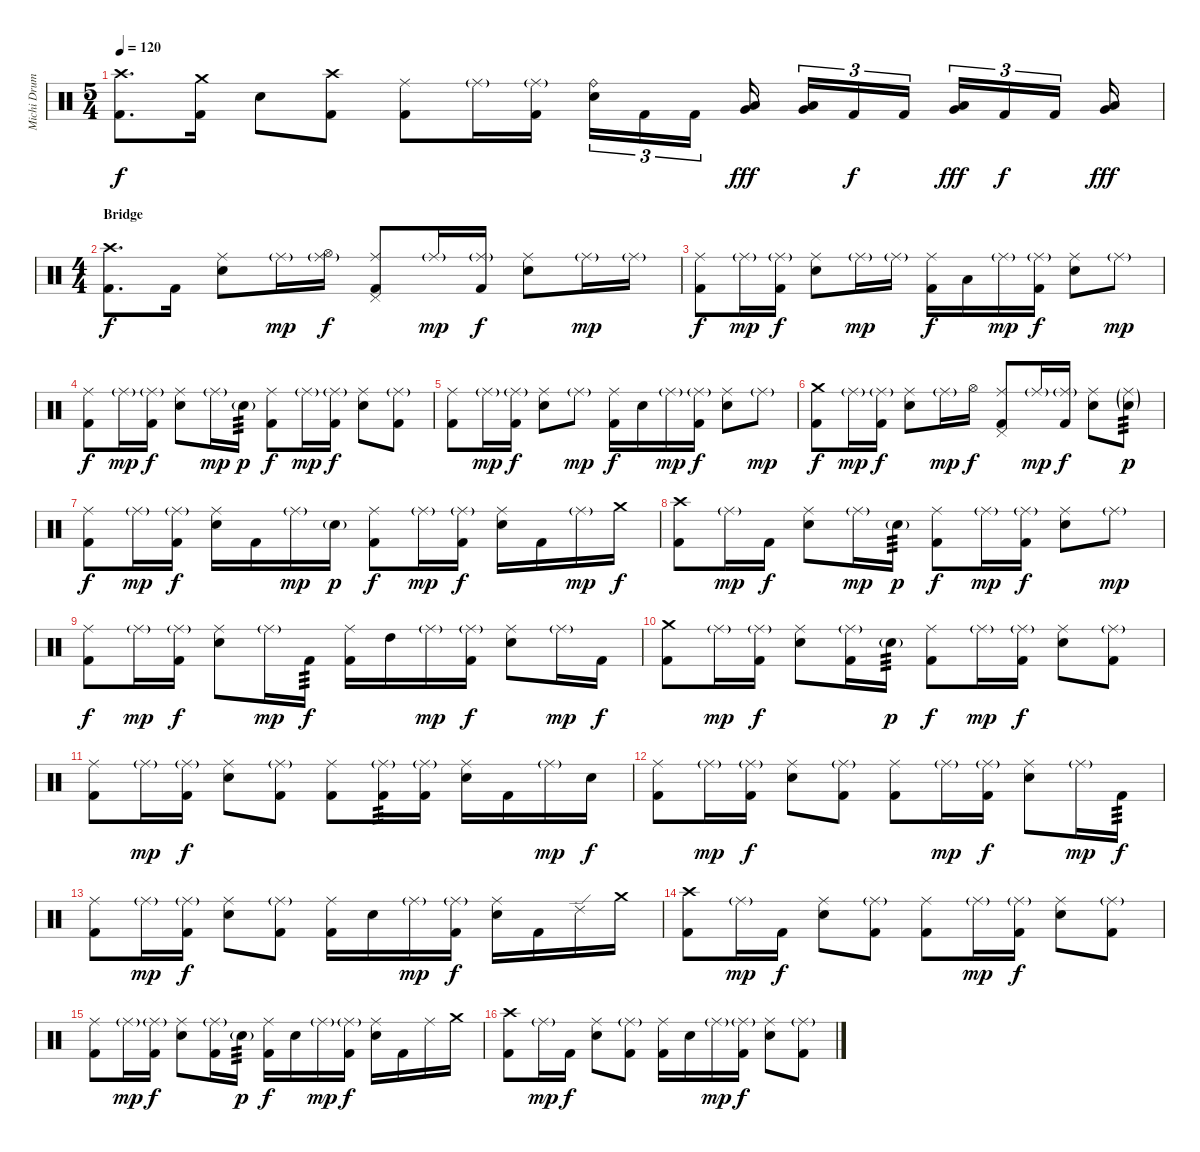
\track ("Michi Drums" "Michi Drum") {instrument percussion}
\staff {score}
\articulation defaults
\ts (5 4)
\tempo 120
\clef neutral
\ks c
("Crash high (hit)" "Kick (hit) 2").8{d dy f} ("Crash medium (hit)" "Kick (hit) 2").16 "Electric Snare (hit)".8 ("Crash high (hit)" "Kick (hit) 2").8 ("Ride (middle)" "Kick (hit) 2").8 "Ride (middle)"{g}.16 ("Ride (middle)"{g} "Kick (hit) 2").16 ("Ride (bell)" "Electric Snare (hit)").16{tu (3 2)} "Kick (hit) 2".16{tu (3 2)} "Kick (hit) 2".16{tu (3 2)} ("Low Tom (hit)" "Very Low Tom (hit)").16{bd 480 dy fff} ("Low Tom (hit)" "Very Low Tom (hit)").16{tu (3 2) bd 480} "Kick (hit) 2".16{tu (3 2) dy f} "Kick (hit) 2".16{tu (3 2)} ("Low Tom (hit)" "Very Low Tom (hit)").16{tu (3 2) bd 480 dy fff} "Kick (hit) 2".16{tu (3 2) dy f} "Kick (hit) 2".16{tu (3 2)} ("Low Tom (hit)" "Very Low Tom (hit)").16{bd 480 dy fff} |
\ts (4 4)
\section ("" "Bridge")
("Crash high (hit)" "Kick (hit) 2").8{d dy f} "Kick (hit) 2".16 ("Ride (middle)" "Electric Snare (hit)").8 "Ride (middle)"{g}.16{dy mp} ("Ride (middle)"{g} "Hi-Hat (open)").16{dy f} ("Ride (middle)" "Pedal Hi-Hat (hit)" "Kick (hit) 2").8 "Ride (middle)"{g}.16{dy mp} ("Ride (middle)"{g} "Kick (hit) 2").16{dy f} ("Ride (middle)" "Electric Snare (hit)").8 "Ride (middle)"{g}.16{dy mp} "Ride (middle)"{g}.16 |
("Ride (middle)" "Kick (hit) 2").8{dy f} "Ride (middle)"{g}.16{dy mp} ("Ride (middle)"{g} "Kick (hit) 2").16{dy f} ("Ride (middle)" "Electric Snare (hit)").8 "Ride (middle)"{g}.16{dy mp} "Ride (middle)"{g}.16 ("Ride (middle)" "Kick (hit) 2").16{dy f} "Low Tom (hit)".16 "Ride (middle)"{g}.16{dy mp} ("Ride (middle)"{g} "Kick (hit) 2").16{dy f} ("Ride (middle)" "Electric Snare (hit)").8 "Ride (middle)"{g}.8{dy mp} |
("Ride (middle)" "Kick (hit) 2").8{dy f} "Ride (middle)"{g}.16{dy mp} ("Ride (middle)"{g} "Kick (hit) 2").16{dy f} ("Ride (middle)" "Electric Snare (hit)").8 "Ride (middle)"{g}.16{dy mp} "Electric Snare (hit)"{g}.16{tp 3 dy p} ("Ride (middle)" "Kick (hit) 2").8{dy f} "Ride (middle)"{g}.16{dy mp} ("Ride (middle)"{g} "Kick (hit) 2").16{dy f} ("Ride (middle)" "Electric Snare (hit)").8 ("Ride (middle)"{g} "Kick (hit) 2").8 |
("Ride (middle)" "Kick (hit) 2").8 "Ride (middle)"{g}.16{dy mp} ("Ride (middle)"{g} "Kick (hit) 2").16{dy f} ("Ride (middle)" "Electric Snare (hit)").8 "Ride (middle)"{g}.8{dy mp} ("Ride (middle)" "Kick (hit) 2").16{dy f} "Electric Snare (hit)".16 "Ride (middle)"{g}.16{dy mp} ("Ride (middle)"{g} "Kick (hit) 2").16{dy f} ("Ride (middle)" "Electric Snare (hit)").8 "Ride (middle)"{g}.8{dy mp} |
("Crash medium (hit)" "Kick (hit) 2").8{dy f} "Ride (middle)"{g}.16{dy mp} ("Ride (middle)"{g} "Kick (hit) 2").16{dy f} ("Ride (middle)" "Electric Snare (hit)").8 "Ride (middle)"{g}.16{dy mp} "Hi-Hat (open)".16{dy f} ("Ride (middle)" "Pedal Hi-Hat (hit)" "Kick (hit) 2").8 "Ride (middle)"{g}.16{dy mp} ("Ride (middle)"{g} "Kick (hit) 2").16{dy f} ("Ride (middle)" "Electric Snare (hit)").8 ("Ride (middle)"{g} "Electric Snare (hit)"{g}).8{tp 3 dy p} |
("Ride (middle)" "Kick (hit) 2").8{dy f} "Ride (middle)"{g}.16{dy mp} ("Ride (middle)"{g} "Kick (hit) 2").16{dy f} ("Ride (middle)" "Electric Snare (hit)").16 "Kick (hit) 2".16 "Ride (middle)"{g}.16{dy mp} "Electric Snare (hit)"{g}.16{dy p} ("Ride (middle)" "Kick (hit) 2").8{dy f} "Ride (middle)"{g}.16{dy mp} ("Ride (middle)"{g} "Kick (hit) 2").16{dy f} ("Ride (middle)" "Electric Snare (hit)").16 "Kick (hit) 2".16 "Ride (middle)"{g}.16{dy mp} "Crash medium (hit)".16{dy f} |
("Crash high (hit)" "Kick (hit) 2").8 "Ride (middle)"{g}.16{dy mp} "Kick (hit) 2".16{dy f} ("Ride (middle)" "Electric Snare (hit)").8 "Ride (middle)"{g}.16{dy mp} "Electric Snare (hit)"{g}.16{tp 3 dy p} ("Ride (middle)" "Kick (hit) 2").8{dy f} "Ride (middle)"{g}.16{dy mp} ("Ride (middle)"{g} "Kick (hit) 2").16{dy f} ("Ride (middle)" "Electric Snare (hit)").8 "Ride (middle)"{g}.8{dy mp} |
("Ride (middle)" "Kick (hit) 2").8{dy f} "Ride (middle)"{g}.16{dy mp} ("Ride (middle)"{g} "Kick (hit) 2").16{dy f} ("Ride (middle)" "Electric Snare (hit)").8 "Ride (middle)"{g}.16{dy mp} "Kick (hit) 2".16{tp 3 dy f} ("Ride (middle)" "Kick (hit) 2").16 "High Tom (hit)".16 "Ride (middle)"{g}.16{dy mp} ("Ride (middle)"{g} "Kick (hit) 2").16{dy f} ("Ride (middle)" "Electric Snare (hit)").8 "Ride (middle)"{g}.16{dy mp} "Kick (hit) 2".16{dy f} |
("Crash medium (hit)" "Kick (hit) 2").8 "Ride (middle)"{g}.16{dy mp} ("Ride (middle)"{g} "Kick (hit) 2").16{dy f} ("Ride (middle)" "Electric Snare (hit)").8 ("Ride (middle)"{g} "Kick (hit) 2").16 "Electric Snare (hit)"{g}.16{tp 3 dy p} ("Ride (middle)" "Kick (hit) 2").8{dy f} "Ride (middle)"{g}.16{dy mp} ("Ride (middle)"{g} "Kick (hit) 2").16{dy f} ("Ride (middle)" "Electric Snare (hit)").8 ("Ride (middle)"{g} "Kick (hit) 2").8 |
("Ride (middle)" "Kick (hit) 2").8 "Ride (middle)"{g}.16{dy mp} ("Ride (middle)"{g} "Kick (hit) 2").16{dy f} ("Ride (middle)" "Electric Snare (hit)").8 ("Ride (middle)"{g} "Kick (hit) 2").8 ("Ride (middle)" "Kick (hit) 2").8 ("Ride (middle)"{g} "Kick (hit) 2").16{tp 3} ("Ride (middle)"{g} "Kick (hit) 2").16 ("Ride (middle)" "Electric Snare (hit)").16 "Kick (hit) 2".16 "Ride (middle)"{g}.16{dy mp} "Electric Snare (hit)".16{dy f} |
("Ride (middle)" "Kick (hit) 2").8 "Ride (middle)"{g}.16{dy mp} ("Ride (middle)"{g} "Kick (hit) 2").16{dy f} ("Ride (middle)" "Electric Snare (hit)").8 ("Ride (middle)"{g} "Kick (hit) 2").8 ("Ride (middle)" "Kick (hit) 2").8 "Ride (middle)"{g}.16{dy mp} ("Ride (middle)"{g} "Kick (hit) 2").16{dy f} ("Ride (middle)" "Electric Snare (hit)").8 "Ride (middle)"{g}.16{dy mp} "Kick (hit) 2".16{tp 3 dy f} |
("Ride (middle)" "Kick (hit) 2").8 "Ride (middle)"{g}.16{dy mp} ("Ride (middle)"{g} "Kick (hit) 2").16{dy f} ("Ride (middle)" "Electric Snare (hit)").8 ("Ride (middle)"{g} "Kick (hit) 2").8 ("Ride (middle)" "Kick (hit) 2").16 "Electric Snare (hit)".16 "Ride (middle)"{g}.16{dy mp} ("Ride (middle)"{g} "Kick (hit) 2").16{dy f} ("Ride (middle)" "Electric Snare (hit)").16 "Kick (hit) 2".16 "Ride (edge) 2".16 "Crash medium (hit)".16 |
("Crash high (hit)" "Kick (hit) 2").8 "Ride (middle)"{g}.16{dy mp} "Kick (hit) 2".16{dy f} ("Ride (middle)" "Electric Snare (hit)").8 ("Ride (middle)"{g} "Kick (hit) 2").8 ("Ride (middle)" "Kick (hit) 2").8 "Ride (middle)"{g}.16{dy mp} ("Ride (middle)"{g} "Kick (hit) 2").16{dy f} ("Ride (middle)" "Electric Snare (hit)").8 ("Ride (middle)"{g} "Kick (hit) 2").8 |
("Ride (middle)" "Kick (hit) 2").8 "Ride (middle)"{g}.16{dy mp} ("Ride (middle)"{g} "Kick (hit) 2").16{dy f} ("Ride (middle)" "Electric Snare (hit)").8 ("Ride (middle)"{g} "Kick (hit) 2").16 "Electric Snare (hit)"{g}.16{tp 3 dy p} ("Ride (middle)" "Kick (hit) 2").16{dy f} "Electric Snare (hit)".16 "Ride (middle)"{g}.16{dy mp} ("Ride (middle)"{g} "Kick (hit) 2").16{dy f} ("Ride (middle)" "Electric Snare (hit)").16 "Kick (hit) 2".16 "Ride (middle)".16 "Crash medium (hit)".16 |
("Crash high (hit)" "Kick (hit) 2").8 "Ride (middle)"{g}.16{dy mp} "Kick (hit) 2".16{dy f} ("Ride (middle)" "Electric Snare (hit)").8 ("Ride (middle)"{g} "Kick (hit) 2").8 ("Ride (middle)" "Kick (hit) 2").16 "Electric Snare (hit)".16 "Ride (middle)"{g}.16{dy mp} ("Ride (middle)"{g} "Kick (hit) 2").16{dy f} ("Ride (middle)" "Electric Snare (hit)").8 ("Ride (middle)"{g} "Kick (hit) 2").8
